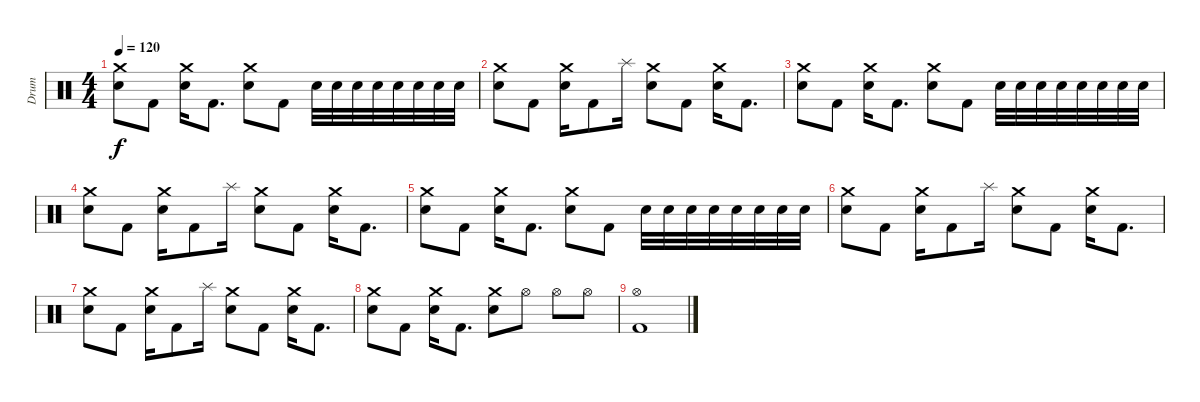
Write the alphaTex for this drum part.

\track ("Drum" "Drum") {instrument percussion}
\staff {score}
\articulation defaults
\ts (4 4)
\tempo 120
\clef neutral
\ks c
("Crash medium (hit)" "Electric Snare (hit)").8{dy f} "Kick (hit) 2".8 ("Crash medium (hit)" "Electric Snare (hit)").16 "Kick (hit) 2".8{d} ("Crash medium (hit)" "Electric Snare (hit)").8 "Kick (hit) 2".8 "Electric Snare (hit)".32 "Electric Snare (hit)".32 "Electric Snare (hit)".32 "Electric Snare (hit)".32 "Electric Snare (hit)".32 "Electric Snare (hit)".32 "Electric Snare (hit)".32 "Electric Snare (hit)".32 |
("Crash medium (hit)" "Electric Snare (hit)").8 "Kick (hit) 2".8 ("Crash medium (hit)" "Electric Snare (hit)").16 "Kick (hit) 2".8 "Splash (hit)".16 ("Crash medium (hit)" "Electric Snare (hit)").8 "Kick (hit) 2".8 ("Crash medium (hit)" "Electric Snare (hit)").16 "Kick (hit) 2".8{d} |
("Crash medium (hit)" "Electric Snare (hit)").8 "Kick (hit) 2".8 ("Crash medium (hit)" "Electric Snare (hit)").16 "Kick (hit) 2".8{d} ("Crash medium (hit)" "Electric Snare (hit)").8 "Kick (hit) 2".8 "Electric Snare (hit)".32 "Electric Snare (hit)".32 "Electric Snare (hit)".32 "Electric Snare (hit)".32 "Electric Snare (hit)".32 "Electric Snare (hit)".32 "Electric Snare (hit)".32 "Electric Snare (hit)".32 |
("Crash medium (hit)" "Electric Snare (hit)").8 "Kick (hit) 2".8 ("Crash medium (hit)" "Electric Snare (hit)").16 "Kick (hit) 2".8 "Splash (hit)".16 ("Crash medium (hit)" "Electric Snare (hit)").8 "Kick (hit) 2".8 ("Crash medium (hit)" "Electric Snare (hit)").16 "Kick (hit) 2".8{d} |
("Crash medium (hit)" "Electric Snare (hit)").8 "Kick (hit) 2".8 ("Crash medium (hit)" "Electric Snare (hit)").16 "Kick (hit) 2".8{d} ("Crash medium (hit)" "Electric Snare (hit)").8 "Kick (hit) 2".8 "Electric Snare (hit)".32 "Electric Snare (hit)".32 "Electric Snare (hit)".32 "Electric Snare (hit)".32 "Electric Snare (hit)".32 "Electric Snare (hit)".32 "Electric Snare (hit)".32 "Electric Snare (hit)".32 |
("Crash medium (hit)" "Electric Snare (hit)").8 "Kick (hit) 2".8 ("Crash medium (hit)" "Electric Snare (hit)").16 "Kick (hit) 2".8 "Splash (hit)".16 ("Crash medium (hit)" "Electric Snare (hit)").8 "Kick (hit) 2".8 ("Crash medium (hit)" "Electric Snare (hit)").16 "Kick (hit) 2".8{d} |
("Crash medium (hit)" "Electric Snare (hit)").8 "Kick (hit) 2".8 ("Crash medium (hit)" "Electric Snare (hit)").16 "Kick (hit) 2".8 "Splash (hit)".16 ("Crash medium (hit)" "Electric Snare (hit)").8 "Kick (hit) 2".8 ("Crash medium (hit)" "Electric Snare (hit)").16 "Kick (hit) 2".8{d} |
("Crash medium (hit)" "Electric Snare (hit)").8 "Kick (hit) 2".8 ("Crash medium (hit)" "Electric Snare (hit)").16 "Kick (hit) 2".8{d} ("Crash medium (hit)" "Electric Snare (hit)").8 "Hi-Hat (open)".8 "Hi-Hat (open)".8 "Hi-Hat (open)".8 |
("Hi-Hat (open)" "Kick (hit) 2").1
